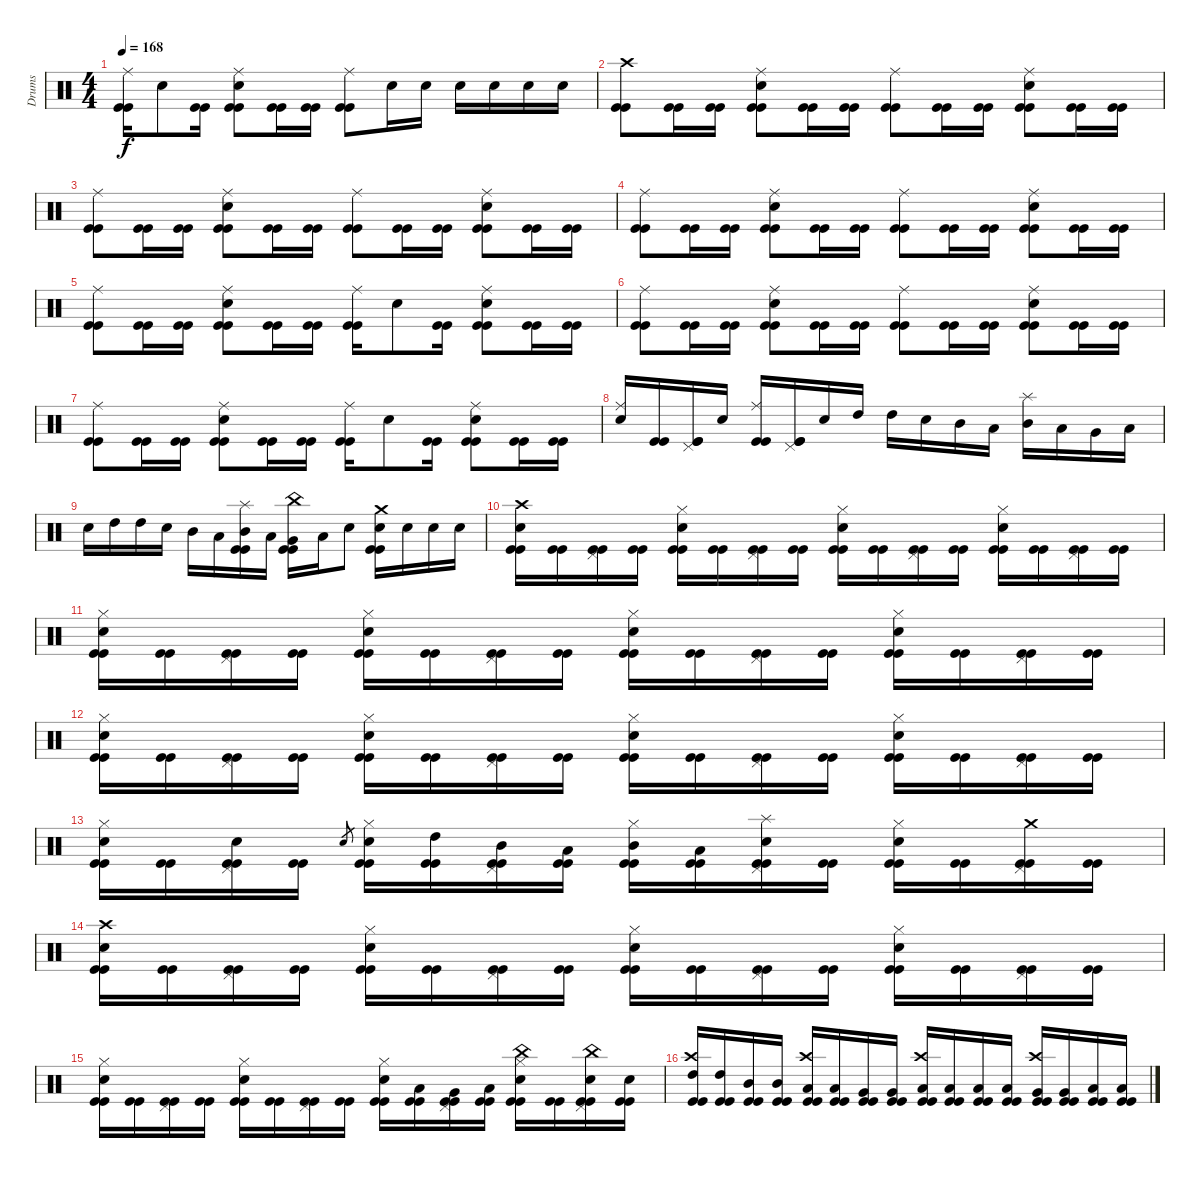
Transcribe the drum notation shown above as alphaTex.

\track ("Drums" "Drums") {instrument percussion}
\staff {score}
\articulation defaults
\ts (4 4)
\tempo 168
\clef neutral
\ks c
("Ride (middle)" "Kick (hit)" "Kick (hit)").16{dy f} "Electric Snare (hit)".8 ("Kick (hit)" "Kick (hit)").16 ("Ride (middle)" "Electric Snare (hit)" "Kick (hit)" "Kick (hit)").8 ("Kick (hit)" "Kick (hit)").16 ("Kick (hit)" "Kick (hit)").16 ("Ride (middle)" "Kick (hit)" "Kick (hit)").8 "Electric Snare (hit)".16 "Electric Snare (hit)".16 "Electric Snare (hit)".16 "Electric Snare (hit)".16 "Electric Snare (hit)".16 "Electric Snare (hit)".16 |
("Crash high (hit)" "Kick (hit)" "Kick (hit)").8 ("Kick (hit)" "Kick (hit)").16 ("Kick (hit)" "Kick (hit)").16 ("Ride (middle)" "Electric Snare (hit)" "Kick (hit)" "Kick (hit)").8 ("Kick (hit)" "Kick (hit)").16 ("Kick (hit)" "Kick (hit)").16 ("Ride (middle)" "Kick (hit)" "Kick (hit)").8 ("Kick (hit)" "Kick (hit)").16 ("Kick (hit)" "Kick (hit)").16 ("Ride (middle)" "Electric Snare (hit)" "Kick (hit)" "Kick (hit)").8 ("Kick (hit)" "Kick (hit)").16 ("Kick (hit)" "Kick (hit)").16 |
("Ride (middle)" "Kick (hit)" "Kick (hit)").8 ("Kick (hit)" "Kick (hit)").16 ("Kick (hit)" "Kick (hit)").16 ("Ride (middle)" "Electric Snare (hit)" "Kick (hit)" "Kick (hit)").8 ("Kick (hit)" "Kick (hit)").16 ("Kick (hit)" "Kick (hit)").16 ("Ride (middle)" "Kick (hit)" "Kick (hit)").8 ("Kick (hit)" "Kick (hit)").16 ("Kick (hit)" "Kick (hit)").16 ("Ride (middle)" "Electric Snare (hit)" "Kick (hit)" "Kick (hit)").8 ("Kick (hit)" "Kick (hit)").16 ("Kick (hit)" "Kick (hit)").16 |
("Ride (middle)" "Kick (hit)" "Kick (hit)").8 ("Kick (hit)" "Kick (hit)").16 ("Kick (hit)" "Kick (hit)").16 ("Ride (middle)" "Electric Snare (hit)" "Kick (hit)" "Kick (hit)").8 ("Kick (hit)" "Kick (hit)").16 ("Kick (hit)" "Kick (hit)").16 ("Ride (middle)" "Kick (hit)" "Kick (hit)").8 ("Kick (hit)" "Kick (hit)").16 ("Kick (hit)" "Kick (hit)").16 ("Ride (middle)" "Electric Snare (hit)" "Kick (hit)" "Kick (hit)").8 ("Kick (hit)" "Kick (hit)").16 ("Kick (hit)" "Kick (hit)").16 |
("Ride (middle)" "Kick (hit)" "Kick (hit)").8 ("Kick (hit)" "Kick (hit)").16 ("Kick (hit)" "Kick (hit)").16 ("Ride (middle)" "Electric Snare (hit)" "Kick (hit)" "Kick (hit)").8 ("Kick (hit)" "Kick (hit)").16 ("Kick (hit)" "Kick (hit)").16 ("Ride (middle)" "Kick (hit)" "Kick (hit)").16 "Electric Snare (hit)".8 ("Kick (hit)" "Kick (hit)").16 ("Ride (middle)" "Electric Snare (hit)" "Kick (hit)" "Kick (hit)").8 ("Kick (hit)" "Kick (hit)").16 ("Kick (hit)" "Kick (hit)").16 |
("Ride (middle)" "Kick (hit)" "Kick (hit)").8 ("Kick (hit)" "Kick (hit)").16 ("Kick (hit)" "Kick (hit)").16 ("Ride (middle)" "Electric Snare (hit)" "Kick (hit)" "Kick (hit)").8 ("Kick (hit)" "Kick (hit)").16 ("Kick (hit)" "Kick (hit)").16 ("Ride (middle)" "Kick (hit)" "Kick (hit)").8 ("Kick (hit)" "Kick (hit)").16 ("Kick (hit)" "Kick (hit)").16 ("Ride (middle)" "Electric Snare (hit)" "Kick (hit)" "Kick (hit)").8 ("Kick (hit)" "Kick (hit)").16 ("Kick (hit)" "Kick (hit)").16 |
("Ride (middle)" "Kick (hit)" "Kick (hit)").8 ("Kick (hit)" "Kick (hit)").16 ("Kick (hit)" "Kick (hit)").16 ("Ride (middle)" "Electric Snare (hit)" "Kick (hit)" "Kick (hit)").8 ("Kick (hit)" "Kick (hit)").16 ("Kick (hit)" "Kick (hit)").16 ("Ride (middle)" "Kick (hit)" "Kick (hit)").16 "Electric Snare (hit)".8 ("Kick (hit)" "Kick (hit)").16 ("Ride (middle)" "Electric Snare (hit)" "Kick (hit)" "Kick (hit)").8 ("Kick (hit)" "Kick (hit)").16 ("Kick (hit)" "Kick (hit)").16 |
("Ride (middle)" "Electric Snare (hit)").16 ("Kick (hit)" "Kick (hit)").16 ("Pedal Hi-Hat (hit)" "Kick (hit)" "Kick (hit)").16 "Electric Snare (hit)".16 ("Ride (middle)" "Kick (hit)" "Kick (hit)").16 ("Pedal Hi-Hat (hit)" "Kick (hit)" "Kick (hit)").16 "Electric Snare (hit)".16 "High Tom (hit)".16 "High Tom (hit)".16 "Electric Snare (hit)".16 "Mid Tom (hit)".16 "Low Tom (hit)".16 ("Splash (hit)" "Mid Tom (hit)").16 "Low Tom (hit)".16 "Very Low Tom (hit)".16 "Low Floor Tom (hit)".16 |
"Electric Snare (hit)".16 "High Tom (hit)".16 "High Tom (hit)".16 "Electric Snare (hit)".16 "Mid Tom (hit)".16 "Low Tom (hit)".16 ("Splash (hit)" "Mid Tom (hit)" "Kick (hit)" "Kick (hit)").16 "Low Tom (hit)".16 ("China (hit)" "Very Low Tom (hit)" "Kick (hit)" "Kick (hit)").16 "Low Floor Tom (hit)".16 "Electric Snare (hit)".8 ("Crash medium (hit)" "Electric Snare (hit)" "Kick (hit)" "Kick (hit)").16 "Electric Snare (hit)".16 "Electric Snare (hit)".16 "Electric Snare (hit)".16 |
("Crash high (hit)" "Electric Snare (hit)" "Kick (hit)" "Kick (hit)").16 ("Kick (hit)" "Kick (hit)").16 ("Pedal Hi-Hat (hit)" "Kick (hit)" "Kick (hit)").16 ("Kick (hit)" "Kick (hit)").16 ("Hi-Hat (closed)" "Electric Snare (hit)" "Kick (hit)" "Kick (hit)").16 ("Kick (hit)" "Kick (hit)").16 ("Pedal Hi-Hat (hit)" "Kick (hit)" "Kick (hit)").16 ("Kick (hit)" "Kick (hit)").16 ("Hi-Hat (closed)" "Electric Snare (hit)" "Kick (hit)" "Kick (hit)").16 ("Kick (hit)" "Kick (hit)").16 ("Pedal Hi-Hat (hit)" "Kick (hit)" "Kick (hit)").16 ("Kick (hit)" "Kick (hit)").16 ("Hi-Hat (closed)" "Electric Snare (hit)" "Kick (hit)" "Kick (hit)").16 ("Kick (hit)" "Kick (hit)").16 ("Pedal Hi-Hat (hit)" "Kick (hit)" "Kick (hit)").16 ("Kick (hit)" "Kick (hit)").16 |
("Hi-Hat (closed)" "Electric Snare (hit)" "Kick (hit)" "Kick (hit)").16 ("Kick (hit)" "Kick (hit)").16 ("Pedal Hi-Hat (hit)" "Kick (hit)" "Kick (hit)").16 ("Kick (hit)" "Kick (hit)").16 ("Hi-Hat (closed)" "Electric Snare (hit)" "Kick (hit)" "Kick (hit)").16 ("Kick (hit)" "Kick (hit)").16 ("Pedal Hi-Hat (hit)" "Kick (hit)" "Kick (hit)").16 ("Kick (hit)" "Kick (hit)").16 ("Hi-Hat (closed)" "Electric Snare (hit)" "Kick (hit)" "Kick (hit)").16 ("Kick (hit)" "Kick (hit)").16 ("Pedal Hi-Hat (hit)" "Kick (hit)" "Kick (hit)").16 ("Kick (hit)" "Kick (hit)").16 ("Hi-Hat (closed)" "Electric Snare (hit)" "Kick (hit)" "Kick (hit)").16 ("Kick (hit)" "Kick (hit)").16 ("Pedal Hi-Hat (hit)" "Kick (hit)" "Kick (hit)").16 ("Kick (hit)" "Kick (hit)").16 |
("Hi-Hat (closed)" "Electric Snare (hit)" "Kick (hit)" "Kick (hit)").16 ("Kick (hit)" "Kick (hit)").16 ("Pedal Hi-Hat (hit)" "Kick (hit)" "Kick (hit)").16 ("Kick (hit)" "Kick (hit)").16 ("Hi-Hat (closed)" "Electric Snare (hit)" "Kick (hit)" "Kick (hit)").16 ("Kick (hit)" "Kick (hit)").16 ("Pedal Hi-Hat (hit)" "Kick (hit)" "Kick (hit)").16 ("Kick (hit)" "Kick (hit)").16 ("Hi-Hat (closed)" "Electric Snare (hit)" "Kick (hit)" "Kick (hit)").16 ("Kick (hit)" "Kick (hit)").16 ("Pedal Hi-Hat (hit)" "Kick (hit)" "Kick (hit)").16 ("Kick (hit)" "Kick (hit)").16 ("Hi-Hat (closed)" "Electric Snare (hit)" "Kick (hit)" "Kick (hit)").16 ("Kick (hit)" "Kick (hit)").16 ("Pedal Hi-Hat (hit)" "Kick (hit)" "Kick (hit)").16 ("Kick (hit)" "Kick (hit)").16 |
("Hi-Hat (closed)" "Electric Snare (hit)" "Kick (hit)" "Kick (hit)").16 ("Kick (hit)" "Kick (hit)").16 ("Pedal Hi-Hat (hit)" "Electric Snare (hit)" "Kick (hit)" "Kick (hit)").16 ("Kick (hit)" "Kick (hit)").16 "Electric Snare (hit)".8{gr} ("Hi-Hat (closed)" "Electric Snare (hit)" "Kick (hit)" "Kick (hit)").16 ("High Tom (hit)" "Kick (hit)" "Kick (hit)").16 ("Pedal Hi-Hat (hit)" "Mid Tom (hit)" "Kick (hit)" "Kick (hit)").16 ("Low Tom (hit)" "Kick (hit)" "Kick (hit)").16 ("Hi-Hat (closed)" "Mid Tom (hit)" "Kick (hit)" "Kick (hit)").16 ("Low Tom (hit)" "Kick (hit)" "Kick (hit)").16 ("Splash (hit)" "Pedal Hi-Hat (hit)" "Electric Snare (hit)" "Kick (hit)" "Kick (hit)").16 ("Kick (hit)" "Kick (hit)").16 ("Hi-Hat (closed)" "Electric Snare (hit)" "Kick (hit)" "Kick (hit)").16 ("Kick (hit)" "Kick (hit)").16 ("Crash medium (hit)" "Pedal Hi-Hat (hit)" "Kick (hit)" "Kick (hit)").16 ("Kick (hit)" "Kick (hit)").16 |
("Crash high (hit)" "Electric Snare (hit)" "Kick (hit)" "Kick (hit)").16 ("Kick (hit)" "Kick (hit)").16 ("Pedal Hi-Hat (hit)" "Kick (hit)" "Kick (hit)").16 ("Kick (hit)" "Kick (hit)").16 ("Hi-Hat (closed)" "Electric Snare (hit)" "Kick (hit)" "Kick (hit)").16 ("Kick (hit)" "Kick (hit)").16 ("Pedal Hi-Hat (hit)" "Kick (hit)" "Kick (hit)").16 ("Kick (hit)" "Kick (hit)").16 ("Hi-Hat (closed)" "Electric Snare (hit)" "Kick (hit)" "Kick (hit)").16 ("Kick (hit)" "Kick (hit)").16 ("Pedal Hi-Hat (hit)" "Kick (hit)" "Kick (hit)").16 ("Kick (hit)" "Kick (hit)").16 ("Hi-Hat (closed)" "Electric Snare (hit)" "Kick (hit)" "Kick (hit)").16 ("Kick (hit)" "Kick (hit)").16 ("Pedal Hi-Hat (hit)" "Kick (hit)" "Kick (hit)").16 ("Kick (hit)" "Kick (hit)").16 |
("Hi-Hat (closed)" "Electric Snare (hit)" "Kick (hit)" "Kick (hit)").16 ("Kick (hit)" "Kick (hit)").16 ("Pedal Hi-Hat (hit)" "Kick (hit)" "Kick (hit)").16 ("Kick (hit)" "Kick (hit)").16 ("Hi-Hat (closed)" "Electric Snare (hit)" "Kick (hit)" "Kick (hit)").16 ("Kick (hit)" "Kick (hit)").16 ("Pedal Hi-Hat (hit)" "Kick (hit)" "Kick (hit)").16 ("Kick (hit)" "Kick (hit)").16 ("Hi-Hat (closed)" "Electric Snare (hit)" "Kick (hit)" "Kick (hit)").16 ("Low Tom (hit)" "Kick (hit)" "Kick (hit)").16 ("Pedal Hi-Hat (hit)" "Very Low Tom (hit)" "Kick (hit)" "Kick (hit)").16 ("Low Tom (hit)" "Kick (hit)" "Kick (hit)").16 ("China (hit)" "Hi-Hat (closed)" "Electric Snare (hit)" "Kick (hit)" "Kick (hit)").16 ("Kick (hit)" "Kick (hit)").16 ("China (hit)" "Pedal Hi-Hat (hit)" "Electric Snare (hit)" "Kick (hit)" "Kick (hit)").16 ("Electric Snare (hit)" "Kick (hit)" "Kick (hit)").16 |
("Crash high (hit)" "High Tom (hit)" "Kick (hit)" "Kick (hit)").16 ("High Tom (hit)" "Kick (hit)" "Kick (hit)").16 ("Mid Tom (hit)" "Kick (hit)" "Kick (hit)").16 ("Mid Tom (hit)" "Kick (hit)" "Kick (hit)").16 ("Crash high (hit)" "Low Tom (hit)" "Kick (hit)" "Kick (hit)").16 ("Low Tom (hit)" "Kick (hit)" "Kick (hit)").16 ("Very Low Tom (hit)" "Kick (hit)" "Kick (hit)").16 ("Very Low Tom (hit)" "Kick (hit)" "Kick (hit)").16 ("Crash high (hit)" "Low Floor Tom (hit)" "Kick (hit)" "Kick (hit)").16 ("Low Floor Tom (hit)" "Kick (hit)" "Kick (hit)").16 ("Low Tom (hit)" "Kick (hit)" "Kick (hit)").16 ("Low Tom (hit)" "Kick (hit)" "Kick (hit)").16 ("Crash high (hit)" "Very Low Tom (hit)" "Kick (hit)" "Kick (hit)").16 ("Very Low Tom (hit)" "Kick (hit)" "Kick (hit)").16 ("Low Floor Tom (hit)" "Kick (hit)" "Kick (hit)").16 ("Low Floor Tom (hit)" "Kick (hit)" "Kick (hit)").16
